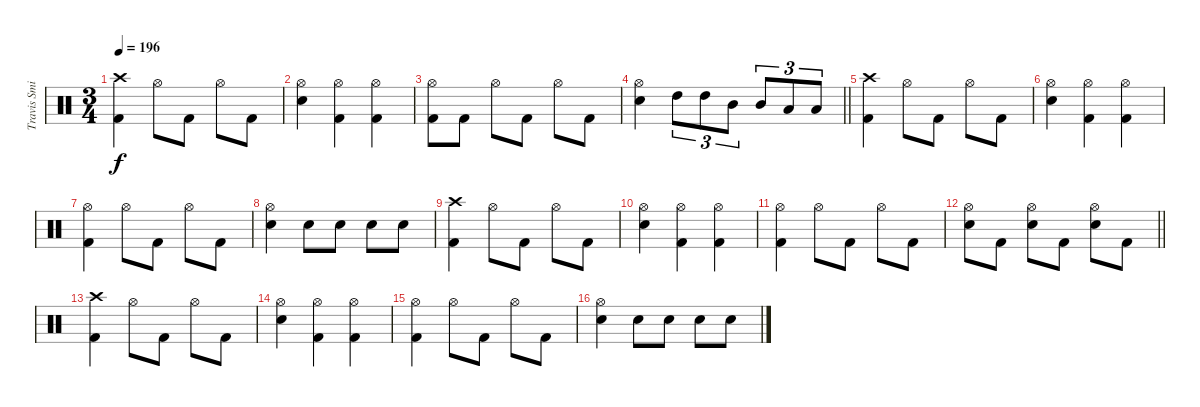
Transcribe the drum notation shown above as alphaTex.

\track ("Travis Smith" "Travis Smi") {instrument percussion}
\staff {score}
\articulation defaults
\ts (3 4)
\tempo 196
\clef neutral
\ks c
("Crash high (hit)" "Kick (hit) 2").4{dy f} "Hi-Hat (open)".8 "Kick (hit) 2".8 "Hi-Hat (open)".8 "Kick (hit) 2".8 |
("Hi-Hat (open)" "Electric Snare (hit)").4 ("Hi-Hat (open)" "Kick (hit) 2").4 ("Hi-Hat (open)" "Kick (hit) 2").4 |
("Hi-Hat (open)" "Kick (hit) 2").8 "Kick (hit) 2".8 "Hi-Hat (open)".8 "Kick (hit) 2".8 "Hi-Hat (open)".8 "Kick (hit) 2".8 |
\barLineRight lightlight
("Hi-Hat (open)" "Electric Snare (hit)").4 "High Tom (hit)".8{tu (3 2)} "High Tom (hit)".8{tu (3 2)} "Mid Tom (hit)".8{tu (3 2)} "Mid Tom (hit)".8{tu (3 2)} "Low Tom (hit)".8{tu (3 2)} "Low Tom (hit)".8{tu (3 2)} |
("Crash high (hit)" "Kick (hit) 2").4 "Hi-Hat (open)".8 "Kick (hit) 2".8 "Hi-Hat (open)".8 "Kick (hit) 2".8 |
("Hi-Hat (open)" "Electric Snare (hit)").4 ("Hi-Hat (open)" "Kick (hit) 2").4 ("Hi-Hat (open)" "Kick (hit) 2").4 |
("Hi-Hat (open)" "Kick (hit) 2").4 "Hi-Hat (open)".8 "Kick (hit) 2".8 "Hi-Hat (open)".8 "Kick (hit) 2".8 |
("Hi-Hat (open)" "Electric Snare (hit)").4 "Electric Snare (hit)".8 "Electric Snare (hit)".8 "Electric Snare (hit)".8 "Electric Snare (hit)".8 |
("Crash high (hit)" "Kick (hit) 2").4 "Hi-Hat (open)".8 "Kick (hit) 2".8 "Hi-Hat (open)".8 "Kick (hit) 2".8 |
("Hi-Hat (open)" "Electric Snare (hit)").4 ("Hi-Hat (open)" "Kick (hit) 2").4 ("Hi-Hat (open)" "Kick (hit) 2").4 |
("Hi-Hat (open)" "Kick (hit) 2").4 "Hi-Hat (open)".8 "Kick (hit) 2".8 "Hi-Hat (open)".8 "Kick (hit) 2".8 |
\barLineRight lightlight
("Hi-Hat (open)" "Electric Snare (hit)").8 "Kick (hit) 2".8 ("Hi-Hat (open)" "Electric Snare (hit)").8 "Kick (hit) 2".8 ("Hi-Hat (open)" "Electric Snare (hit)").8 "Kick (hit) 2".8 |
("Crash high (hit)" "Kick (hit) 2").4 "Hi-Hat (open)".8 "Kick (hit) 2".8 "Hi-Hat (open)".8 "Kick (hit) 2".8 |
("Hi-Hat (open)" "Electric Snare (hit)").4 ("Hi-Hat (open)" "Kick (hit) 2").4 ("Hi-Hat (open)" "Kick (hit) 2").4 |
("Hi-Hat (open)" "Kick (hit) 2").4 "Hi-Hat (open)".8 "Kick (hit) 2".8 "Hi-Hat (open)".8 "Kick (hit) 2".8 |
("Hi-Hat (open)" "Electric Snare (hit)").4 "Electric Snare (hit)".8 "Electric Snare (hit)".8 "Electric Snare (hit)".8 "Electric Snare (hit)".8
